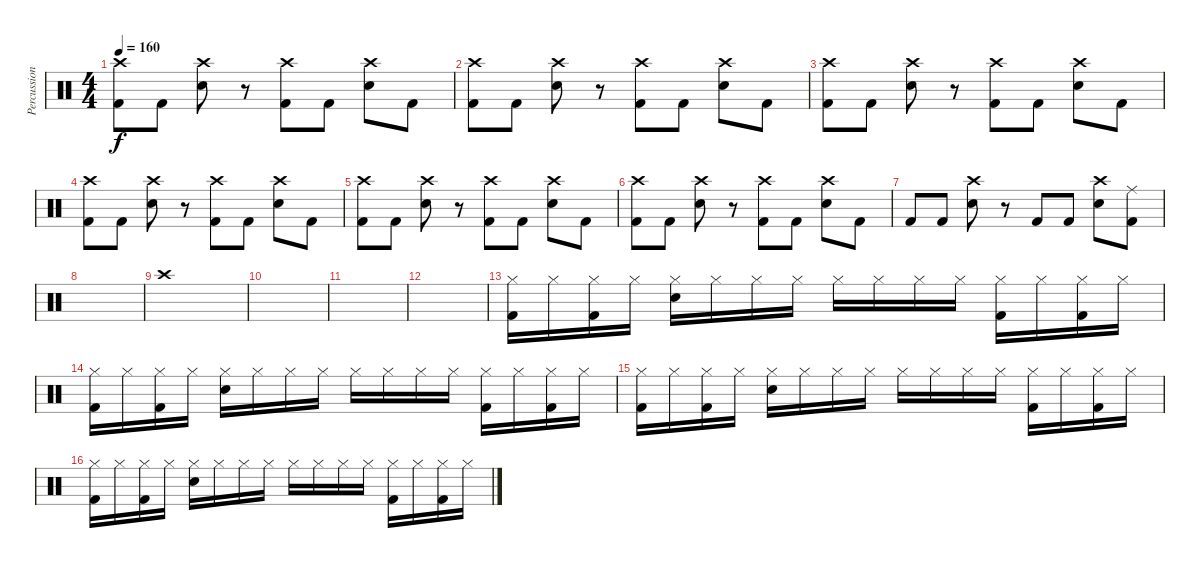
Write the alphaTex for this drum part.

\track ("Percussion" "Percussion") {instrument percussion}
\staff {score}
\articulation defaults
\ts (4 4)
\tempo 160
\clef neutral
\ks c
("Crash high (hit)" "Kick (hit) 2").8{dy f} "Kick (hit) 2".8 ("Crash high (hit)" "Snare (hit) 2").8 r.8 ("Crash high (hit)" "Kick (hit) 2").8 "Kick (hit) 2".8 ("Crash high (hit)" "Snare (hit) 2").8 "Kick (hit) 2".8 |
("Crash high (hit)" "Kick (hit) 2").8 "Kick (hit) 2".8 ("Crash high (hit)" "Snare (hit) 2").8 r.8 ("Crash high (hit)" "Kick (hit) 2").8 "Kick (hit) 2".8 ("Crash high (hit)" "Snare (hit) 2").8 "Kick (hit) 2".8 |
("Crash high (hit)" "Kick (hit) 2").8 "Kick (hit) 2".8 ("Crash high (hit)" "Snare (hit) 2").8 r.8 ("Crash high (hit)" "Kick (hit) 2").8 "Kick (hit) 2".8 ("Crash high (hit)" "Snare (hit) 2").8 "Kick (hit) 2".8 |
("Crash high (hit)" "Kick (hit) 2").8 "Kick (hit) 2".8 ("Crash high (hit)" "Snare (hit) 2").8 r.8 ("Crash high (hit)" "Kick (hit) 2").8 "Kick (hit) 2".8 ("Crash high (hit)" "Snare (hit) 2").8 "Kick (hit) 2".8 |
("Crash high (hit)" "Kick (hit) 2").8 "Kick (hit) 2".8 ("Crash high (hit)" "Snare (hit) 2").8 r.8 ("Crash high (hit)" "Kick (hit) 2").8 "Kick (hit) 2".8 ("Crash high (hit)" "Snare (hit) 2").8 "Kick (hit) 2".8 |
("Crash high (hit)" "Kick (hit) 2").8 "Kick (hit) 2".8 ("Crash high (hit)" "Snare (hit) 2").8 r.8 ("Crash high (hit)" "Kick (hit) 2").8 "Kick (hit) 2".8 ("Crash high (hit)" "Snare (hit) 2").8 "Kick (hit) 2".8 |
"Kick (hit) 2".8 "Kick (hit) 2".8 ("Crash high (hit)" "Snare (hit) 2").8 r.8 "Kick (hit) 2".8 "Kick (hit) 2".8 ("Crash high (hit)" "Snare (hit) 2").8 ("Ride (middle)" "Kick (hit) 2").8 |
|
"Crash high (hit)".1 |
|
|
|
("Kick (hit) 2" "Hi-Hat (closed)").16 "Hi-Hat (closed)".16 ("Kick (hit) 2" "Hi-Hat (closed)").16 "Hi-Hat (closed)".16 ("Snare (hit) 2" "Hi-Hat (closed)").16 "Hi-Hat (closed)".16 "Hi-Hat (closed)".16 "Hi-Hat (closed)".16 "Hi-Hat (closed)".16 "Hi-Hat (closed)".16 "Hi-Hat (closed)".16 "Hi-Hat (closed)".16 ("Kick (hit) 2" "Hi-Hat (closed)").16 "Hi-Hat (closed)".16 ("Kick (hit) 2" "Hi-Hat (closed)").16 "Hi-Hat (closed)".16 |
("Kick (hit) 2" "Hi-Hat (closed)").16 "Hi-Hat (closed)".16 ("Kick (hit) 2" "Hi-Hat (closed)").16 "Hi-Hat (closed)".16 ("Snare (hit) 2" "Hi-Hat (closed)").16 "Hi-Hat (closed)".16 "Hi-Hat (closed)".16 "Hi-Hat (closed)".16 "Hi-Hat (closed)".16 "Hi-Hat (closed)".16 "Hi-Hat (closed)".16 "Hi-Hat (closed)".16 ("Kick (hit) 2" "Hi-Hat (closed)").16 "Hi-Hat (closed)".16 ("Kick (hit) 2" "Hi-Hat (closed)").16 "Hi-Hat (closed)".16 |
("Kick (hit) 2" "Hi-Hat (closed)").16 "Hi-Hat (closed)".16 ("Kick (hit) 2" "Hi-Hat (closed)").16 "Hi-Hat (closed)".16 ("Snare (hit) 2" "Hi-Hat (closed)").16 "Hi-Hat (closed)".16 "Hi-Hat (closed)".16 "Hi-Hat (closed)".16 "Hi-Hat (closed)".16 "Hi-Hat (closed)".16 "Hi-Hat (closed)".16 "Hi-Hat (closed)".16 ("Kick (hit) 2" "Hi-Hat (closed)").16 "Hi-Hat (closed)".16 ("Kick (hit) 2" "Hi-Hat (closed)").16 "Hi-Hat (closed)".16 |
("Kick (hit) 2" "Hi-Hat (closed)").16 "Hi-Hat (closed)".16 ("Kick (hit) 2" "Hi-Hat (closed)").16 "Hi-Hat (closed)".16 ("Snare (hit) 2" "Hi-Hat (closed)").16 "Hi-Hat (closed)".16 "Hi-Hat (closed)".16 "Hi-Hat (closed)".16 "Hi-Hat (closed)".16 "Hi-Hat (closed)".16 "Hi-Hat (closed)".16 "Hi-Hat (closed)".16 ("Kick (hit) 2" "Hi-Hat (closed)").16 "Hi-Hat (closed)".16 ("Kick (hit) 2" "Hi-Hat (closed)").16 "Hi-Hat (closed)".16
